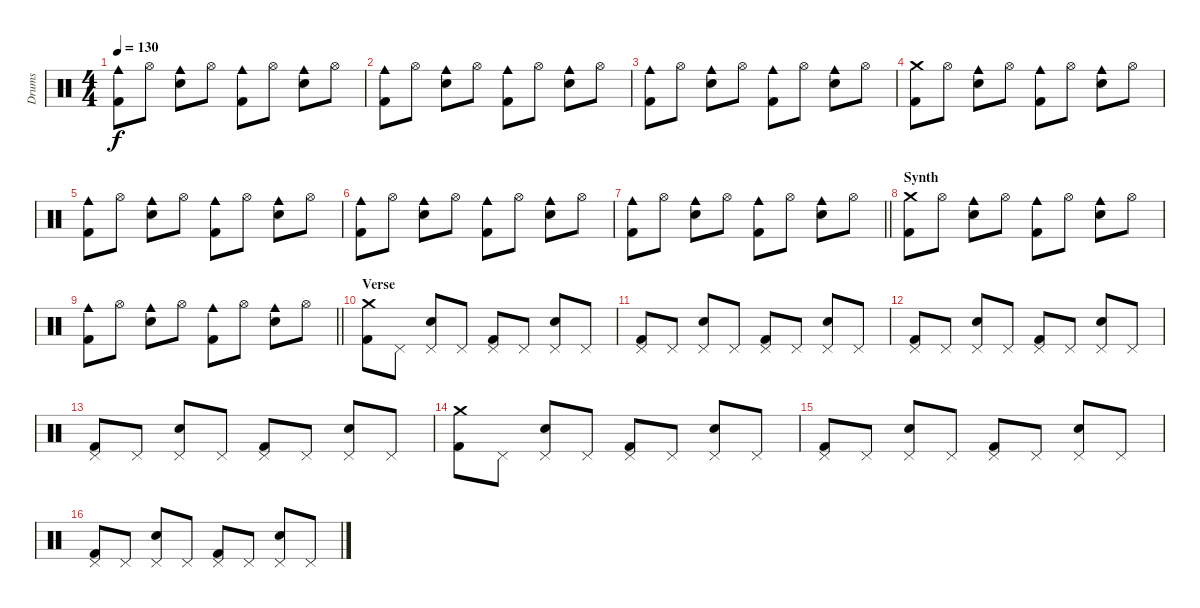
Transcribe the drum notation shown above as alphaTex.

\track ("Drums" "Drums") {instrument percussion}
\staff {score}
\articulation defaults
\ts (4 4)
\tempo 130
\clef neutral
\ks c
("Cowbell medium (hit)" "Kick (hit) 2").8{dy f} "Hi-Hat (open)".8 ("Cowbell medium (hit)" "Snare (hit) 2").8 "Hi-Hat (open)".8 ("Cowbell medium (hit)" "Kick (hit) 2").8 "Hi-Hat (open)".8 ("Cowbell medium (hit)" "Snare (hit) 2").8 "Hi-Hat (open)".8 |
("Cowbell medium (hit)" "Kick (hit) 2").8 "Hi-Hat (open)".8 ("Cowbell medium (hit)" "Snare (hit) 2").8 "Hi-Hat (open)".8 ("Cowbell medium (hit)" "Kick (hit) 2").8 "Hi-Hat (open)".8 ("Cowbell medium (hit)" "Snare (hit) 2").8 "Hi-Hat (open)".8 |
("Cowbell medium (hit)" "Kick (hit) 2").8 "Hi-Hat (open)".8 ("Cowbell medium (hit)" "Snare (hit) 2").8 "Hi-Hat (open)".8 ("Cowbell medium (hit)" "Kick (hit) 2").8 "Hi-Hat (open)".8 ("Cowbell medium (hit)" "Snare (hit) 2").8 "Hi-Hat (open)".8 |
("Crash medium (hit)" "Kick (hit) 2").8 "Hi-Hat (open)".8 ("Cowbell medium (hit)" "Snare (hit) 2").8 "Hi-Hat (open)".8 ("Cowbell medium (hit)" "Kick (hit) 2").8 "Hi-Hat (open)".8 ("Cowbell medium (hit)" "Snare (hit) 2").8 "Hi-Hat (open)".8 |
("Cowbell medium (hit)" "Kick (hit) 2").8 "Hi-Hat (open)".8 ("Cowbell medium (hit)" "Snare (hit) 2").8 "Hi-Hat (open)".8 ("Cowbell medium (hit)" "Kick (hit) 2").8 "Hi-Hat (open)".8 ("Cowbell medium (hit)" "Snare (hit) 2").8 "Hi-Hat (open)".8 |
("Cowbell medium (hit)" "Kick (hit) 2").8 "Hi-Hat (open)".8 ("Cowbell medium (hit)" "Snare (hit) 2").8 "Hi-Hat (open)".8 ("Cowbell medium (hit)" "Kick (hit) 2").8 "Hi-Hat (open)".8 ("Cowbell medium (hit)" "Snare (hit) 2").8 "Hi-Hat (open)".8 |
\barLineRight lightlight
("Cowbell medium (hit)" "Kick (hit) 2").8 "Hi-Hat (open)".8 ("Cowbell medium (hit)" "Snare (hit) 2").8 "Hi-Hat (open)".8 ("Cowbell medium (hit)" "Kick (hit) 2").8 "Hi-Hat (open)".8 ("Cowbell medium (hit)" "Snare (hit) 2").8 "Hi-Hat (open)".8 |
\section ("" "Synth")
("Crash medium (hit)" "Kick (hit) 2").8 "Hi-Hat (open)".8 ("Cowbell medium (hit)" "Snare (hit) 2").8 "Hi-Hat (open)".8 ("Cowbell medium (hit)" "Kick (hit) 2").8 "Hi-Hat (open)".8 ("Cowbell medium (hit)" "Snare (hit) 2").8 "Hi-Hat (open)".8 |
\barLineRight lightlight
("Cowbell medium (hit)" "Kick (hit) 2").8 "Hi-Hat (open)".8 ("Cowbell medium (hit)" "Snare (hit) 2").8 "Hi-Hat (open)".8 ("Cowbell medium (hit)" "Kick (hit) 2").8 "Hi-Hat (open)".8 ("Cowbell medium (hit)" "Snare (hit) 2").8 "Hi-Hat (open)".8 |
\section ("" "Verse")
("Crash medium (hit)" "Kick (hit) 2").8 "Pedal Hi-Hat (hit)".8 ("Pedal Hi-Hat (hit)" "Snare (hit) 2").8 "Pedal Hi-Hat (hit)".8 ("Pedal Hi-Hat (hit)" "Kick (hit) 2").8 "Pedal Hi-Hat (hit)".8 ("Pedal Hi-Hat (hit)" "Snare (hit) 2").8 "Pedal Hi-Hat (hit)".8 |
("Pedal Hi-Hat (hit)" "Kick (hit) 2").8 "Pedal Hi-Hat (hit)".8 ("Pedal Hi-Hat (hit)" "Snare (hit) 2").8 "Pedal Hi-Hat (hit)".8 ("Pedal Hi-Hat (hit)" "Kick (hit) 2").8 "Pedal Hi-Hat (hit)".8 ("Pedal Hi-Hat (hit)" "Snare (hit) 2").8 "Pedal Hi-Hat (hit)".8 |
("Pedal Hi-Hat (hit)" "Kick (hit) 2").8 "Pedal Hi-Hat (hit)".8 ("Pedal Hi-Hat (hit)" "Snare (hit) 2").8 "Pedal Hi-Hat (hit)".8 ("Pedal Hi-Hat (hit)" "Kick (hit) 2").8 "Pedal Hi-Hat (hit)".8 ("Pedal Hi-Hat (hit)" "Snare (hit) 2").8 "Pedal Hi-Hat (hit)".8 |
("Pedal Hi-Hat (hit)" "Kick (hit) 2").8 "Pedal Hi-Hat (hit)".8 ("Pedal Hi-Hat (hit)" "Snare (hit) 2").8 "Pedal Hi-Hat (hit)".8 ("Pedal Hi-Hat (hit)" "Kick (hit) 2").8 "Pedal Hi-Hat (hit)".8 ("Pedal Hi-Hat (hit)" "Snare (hit) 2").8 "Pedal Hi-Hat (hit)".8 |
("Crash medium (hit)" "Kick (hit) 2").8 "Pedal Hi-Hat (hit)".8 ("Pedal Hi-Hat (hit)" "Snare (hit) 2").8 "Pedal Hi-Hat (hit)".8 ("Pedal Hi-Hat (hit)" "Kick (hit) 2").8 "Pedal Hi-Hat (hit)".8 ("Pedal Hi-Hat (hit)" "Snare (hit) 2").8 "Pedal Hi-Hat (hit)".8 |
("Pedal Hi-Hat (hit)" "Kick (hit) 2").8 "Pedal Hi-Hat (hit)".8 ("Pedal Hi-Hat (hit)" "Snare (hit) 2").8 "Pedal Hi-Hat (hit)".8 ("Pedal Hi-Hat (hit)" "Kick (hit) 2").8 "Pedal Hi-Hat (hit)".8 ("Pedal Hi-Hat (hit)" "Snare (hit) 2").8 "Pedal Hi-Hat (hit)".8 |
("Pedal Hi-Hat (hit)" "Kick (hit) 2").8 "Pedal Hi-Hat (hit)".8 ("Pedal Hi-Hat (hit)" "Snare (hit) 2").8 "Pedal Hi-Hat (hit)".8 ("Pedal Hi-Hat (hit)" "Kick (hit) 2").8 "Pedal Hi-Hat (hit)".8 ("Pedal Hi-Hat (hit)" "Snare (hit) 2").8 "Pedal Hi-Hat (hit)".8
